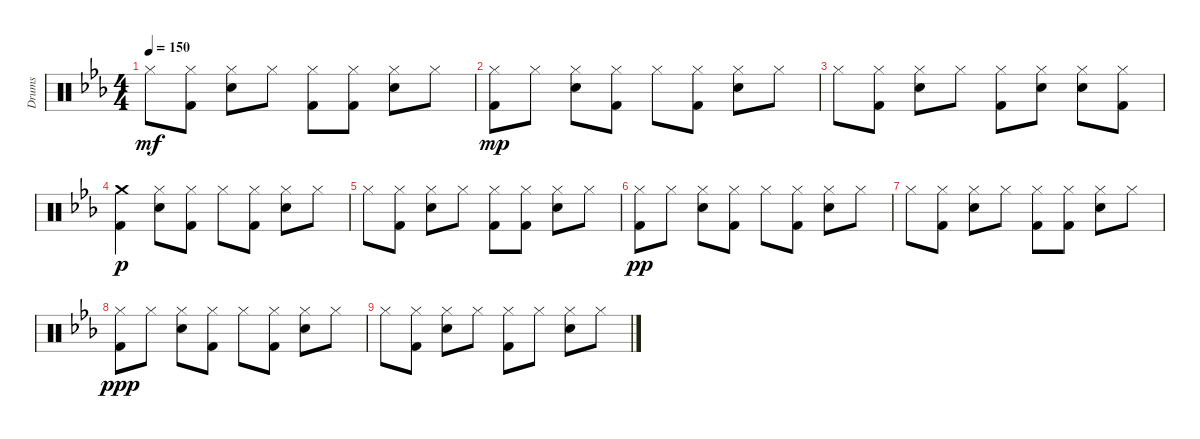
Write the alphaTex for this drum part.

\track ("Drums" "Drums") {instrument percussion}
\staff {score}
\articulation defaults
\ts (4 4)
\tempo 150
\clef neutral
\ks eb "Hi-Hat (closed)".8{dy mf}
("Hi-Hat (closed)" "Kick (hit) 2").8 ("Hi-Hat (closed)" "Electric Snare (hit)").8 "Hi-Hat (closed)".8 ("Hi-Hat (closed)" "Kick (hit) 2").8 ("Hi-Hat (closed)" "Kick (hit) 2").8 ("Hi-Hat (closed)" "Electric Snare (hit)").8 "Hi-Hat (closed)".8 |
("Hi-Hat (closed)" "Kick (hit) 2").8{dy mp} "Hi-Hat (closed)".8 ("Hi-Hat (closed)" "Electric Snare (hit)").8 ("Hi-Hat (closed)" "Kick (hit) 2").8 "Hi-Hat (closed)".8 ("Hi-Hat (closed)" "Kick (hit) 2").8 ("Hi-Hat (closed)" "Electric Snare (hit)").8 "Hi-Hat (closed)".8 |
"Hi-Hat (closed)".8 ("Hi-Hat (closed)" "Kick (hit) 2").8 ("Hi-Hat (closed)" "Electric Snare (hit)").8 "Hi-Hat (closed)".8 ("Hi-Hat (closed)" "Kick (hit) 2").8 ("Hi-Hat (closed)" "Electric Snare (hit)").8 ("Hi-Hat (closed)" "Electric Snare (hit)").8 ("Hi-Hat (closed)" "Kick (hit) 2").8 |
("Crash medium (hit)" "Kick (hit) 2").4{dy p} ("Hi-Hat (closed)" "Electric Snare (hit)").8 ("Hi-Hat (closed)" "Kick (hit) 2").8 "Hi-Hat (closed)".8 ("Hi-Hat (closed)" "Kick (hit) 2").8 ("Hi-Hat (closed)" "Electric Snare (hit)").8 "Hi-Hat (closed)".8 |
"Hi-Hat (closed)".8 ("Hi-Hat (closed)" "Kick (hit) 2").8 ("Hi-Hat (closed)" "Electric Snare (hit)").8 "Hi-Hat (closed)".8 ("Hi-Hat (closed)" "Kick (hit) 2").8 ("Hi-Hat (closed)" "Kick (hit) 2").8 ("Hi-Hat (closed)" "Electric Snare (hit)").8 "Hi-Hat (closed)".8 |
("Hi-Hat (closed)" "Kick (hit) 2").8{dy pp} "Hi-Hat (closed)".8 ("Hi-Hat (closed)" "Electric Snare (hit)").8 ("Hi-Hat (closed)" "Kick (hit) 2").8 "Hi-Hat (closed)".8 ("Hi-Hat (closed)" "Kick (hit) 2").8 ("Hi-Hat (closed)" "Electric Snare (hit)").8 "Hi-Hat (closed)".8 |
"Hi-Hat (closed)".8 ("Hi-Hat (closed)" "Kick (hit) 2").8 ("Hi-Hat (closed)" "Electric Snare (hit)").8 "Hi-Hat (closed)".8 ("Hi-Hat (closed)" "Kick (hit) 2").8 ("Hi-Hat (closed)" "Kick (hit) 2").8 ("Hi-Hat (closed)" "Electric Snare (hit)").8 "Hi-Hat (closed)".8 |
("Hi-Hat (closed)" "Kick (hit) 2").8{dy ppp} "Hi-Hat (closed)".8 ("Hi-Hat (closed)" "Electric Snare (hit)").8 ("Hi-Hat (closed)" "Kick (hit) 2").8 "Hi-Hat (closed)".8 ("Hi-Hat (closed)" "Kick (hit) 2").8 ("Hi-Hat (closed)" "Electric Snare (hit)").8 "Hi-Hat (closed)".8 |
"Hi-Hat (closed)".8 ("Hi-Hat (closed)" "Kick (hit) 2").8 ("Hi-Hat (closed)" "Electric Snare (hit)").8 "Hi-Hat (closed)".8 ("Hi-Hat (closed)" "Kick (hit) 2").8 "Hi-Hat (closed)".8 ("Hi-Hat (closed)" "Electric Snare (hit)").8 "Hi-Hat (closed)".8
